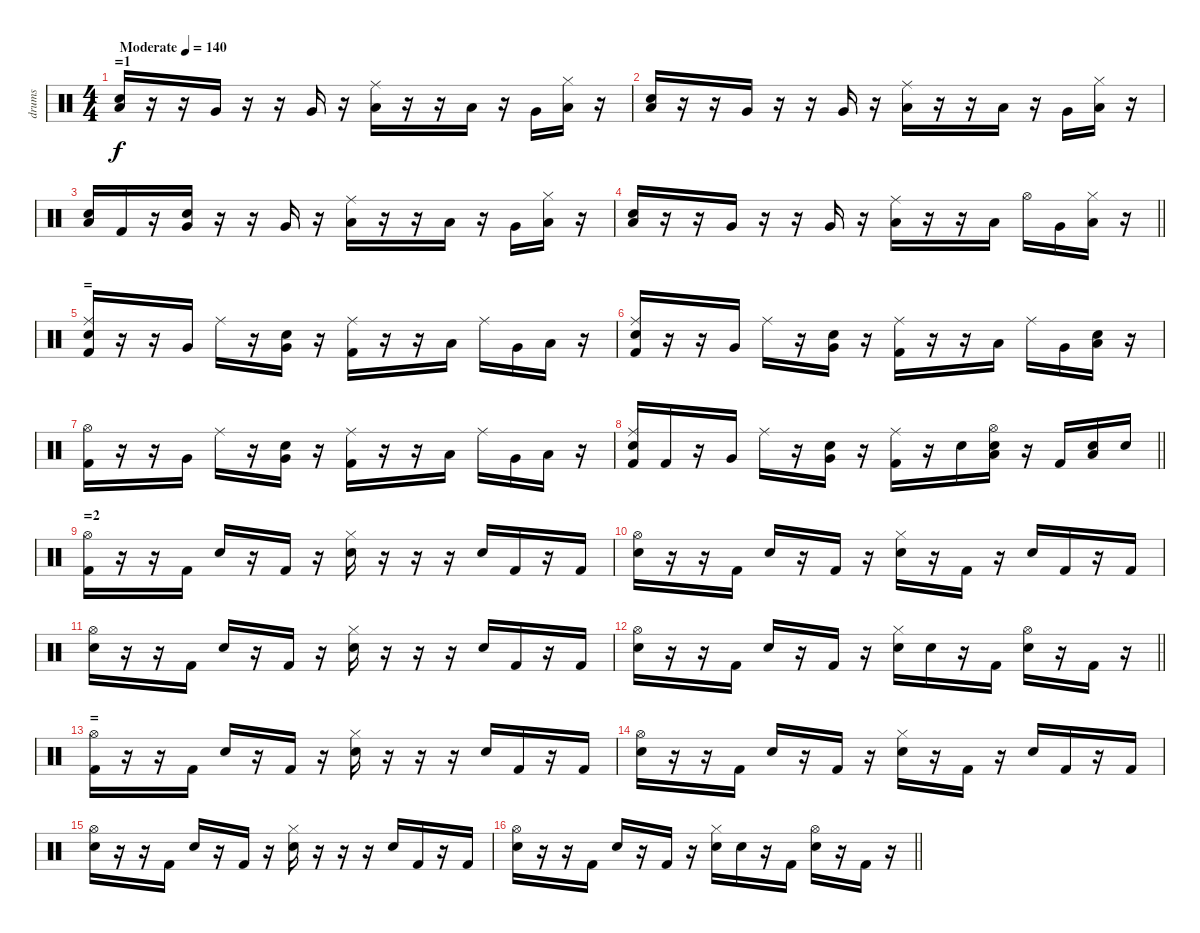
\track ("drums" "drums") {instrument percussion}
\staff {score}
\articulation defaults
\ts (4 4)
\section ("" "=1")
\tempo (140 "Moderate")
\clef neutral
\ks c
("Low Floor Tom (hit)" "Electric Snare (hit)").16{dy f} r.16 r.16 "Very Low Tom (hit)".16 r.16 r.16 "Very Low Tom (hit)".16 r.16 ("Low Floor Tom (hit)" "Ride (middle)").16 r.16 r.16 "Low Tom (hit)".16 r.16 "Very Low Tom (hit)".16 ("Low Floor Tom (hit)" "Hi-Hat (closed)").16 r.16 |
("Low Floor Tom (hit)" "Electric Snare (hit)").16 r.16 r.16 "Very Low Tom (hit)".16 r.16 r.16 "Very Low Tom (hit)".16 r.16 ("Low Floor Tom (hit)" "Ride (middle)").16 r.16 r.16 "Low Tom (hit)".16 r.16 "Very Low Tom (hit)".16 ("Low Floor Tom (hit)" "Hi-Hat (closed)").16 r.16 |
("Low Floor Tom (hit)" "Electric Snare (hit)").16 "Kick (hit) 2".16 r.16 ("Very Low Tom (hit)" "Hand Clap (hit)").16 r.16 r.16 "Very Low Tom (hit)".16 r.16 ("Low Floor Tom (hit)" "Ride (middle)").16 r.16 r.16 "Low Tom (hit)".16 r.16 "Very Low Tom (hit)".16 ("Low Floor Tom (hit)" "Hi-Hat (closed)").16 r.16 |
\barLineRight lightlight
("Low Floor Tom (hit)" "Electric Snare (hit)").16 r.16 r.16 "Very Low Tom (hit)".16 r.16 r.16 "Very Low Tom (hit)".16 r.16 ("Low Floor Tom (hit)" "Ride (middle)").16 r.16 r.16 "Low Tom (hit)".16 "Hi-Hat (open)".16 "Very Low Tom (hit)".16 ("Low Floor Tom (hit)" "Hi-Hat (closed)").16 r.16 |
\section ("" "=")
("Kick (hit) 2" "Electric Snare (hit)" "Ride (middle)").16 r.16 r.16 "Very Low Tom (hit)".16 "Ride (middle)".16 r.16 ("Very Low Tom (hit)" "Electric Snare (hit)").16 r.16 ("Kick (hit) 2" "Ride (middle)").16 r.16 r.16 "Low Tom (hit)".16 "Ride (middle)".16 "Very Low Tom (hit)".16 "Low Floor Tom (hit)".16 r.16 |
("Kick (hit) 2" "Electric Snare (hit)" "Ride (middle)").16 r.16 r.16 "Very Low Tom (hit)".16 "Ride (middle)".16 r.16 ("Very Low Tom (hit)" "Electric Snare (hit)").16 r.16 ("Kick (hit) 2" "Ride (middle)").16 r.16 r.16 "Low Tom (hit)".16 "Ride (middle)".16 "Very Low Tom (hit)".16 ("Low Floor Tom (hit)" "Electric Snare (hit)").16 r.16 |
("Kick (hit) 2" "Hi-Hat (open)").16 r.16 r.16 "Very Low Tom (hit)".16 "Ride (middle)".16 r.16 ("Very Low Tom (hit)" "Electric Snare (hit)").16 r.16 ("Kick (hit) 2" "Ride (middle)").16 r.16 r.16 "Low Tom (hit)".16 "Ride (middle)".16 "Very Low Tom (hit)".16 "Low Floor Tom (hit)".16 r.16 |
\barLineRight lightlight
("Kick (hit) 2" "Electric Snare (hit)" "Ride (middle)").16 "Kick (hit) 2".16 r.16 "Very Low Tom (hit)".16 "Ride (middle)".16 r.16 ("Very Low Tom (hit)" "Electric Snare (hit)").16 r.16 ("Kick (hit) 2" "Ride (middle)").16 r.16 "Electric Snare (hit)".16 ("Low Tom (hit)" "Electric Snare (hit)" "Hi-Hat (open)").16 r.16 "Kick (hit) 2".16 ("Low Floor Tom (hit)" "Electric Snare (hit)").16 "Electric Snare (hit)".16 |
\section ("" "=2")
("Kick (hit) 2" "Hi-Hat (open)").16 r.16 r.16 "Kick (hit) 2".16 "Electric Snare (hit)".16 r.16 "Kick (hit) 2".16 r.16 ("Electric Snare (hit)" "Hi-Hat (closed)").16 r.16 r.16 r.16 "Electric Snare (hit)".16 "Kick (hit) 2".16 r.16 "Kick (hit) 2".16 |
("Hi-Hat (open)" "Electric Snare (hit)").16 r.16 r.16 "Kick (hit) 2".16 "Electric Snare (hit)".16 r.16 "Kick (hit) 2".16 r.16 ("Electric Snare (hit)" "Hi-Hat (closed)").16 r.16 "Kick (hit) 2".16 r.16 "Electric Snare (hit)".16 "Kick (hit) 2".16 r.16 "Kick (hit) 2".16 |
("Hi-Hat (open)" "Electric Snare (hit)").16 r.16 r.16 "Kick (hit) 2".16 "Electric Snare (hit)".16 r.16 "Kick (hit) 2".16 r.16 ("Electric Snare (hit)" "Hi-Hat (closed)").16 r.16 r.16 r.16 "Electric Snare (hit)".16 "Kick (hit) 2".16 r.16 "Kick (hit) 2".16 |
\barLineRight lightlight
("Hi-Hat (open)" "Electric Snare (hit)").16 r.16 r.16 "Kick (hit) 2".16 "Electric Snare (hit)".16 r.16 "Kick (hit) 2".16 r.16 ("Electric Snare (hit)" "Hi-Hat (closed)").16 "Electric Snare (hit)".16 r.16 "Kick (hit) 2".16 ("Electric Snare (hit)" "Hi-Hat (open)").16 r.16 "Kick (hit) 2".16 r.16 |
\section ("" "=")
("Kick (hit) 2" "Hi-Hat (open)").16 r.16 r.16 "Kick (hit) 2".16 "Electric Snare (hit)".16 r.16 "Kick (hit) 2".16 r.16 ("Electric Snare (hit)" "Hi-Hat (closed)").16 r.16 r.16 r.16 "Electric Snare (hit)".16 "Kick (hit) 2".16 r.16 "Kick (hit) 2".16 |
("Hi-Hat (open)" "Electric Snare (hit)").16 r.16 r.16 "Kick (hit) 2".16 "Electric Snare (hit)".16 r.16 "Kick (hit) 2".16 r.16 ("Electric Snare (hit)" "Hi-Hat (closed)").16 r.16 "Kick (hit) 2".16 r.16 "Electric Snare (hit)".16 "Kick (hit) 2".16 r.16 "Kick (hit) 2".16 |
("Hi-Hat (open)" "Electric Snare (hit)").16 r.16 r.16 "Kick (hit) 2".16 "Electric Snare (hit)".16 r.16 "Kick (hit) 2".16 r.16 ("Electric Snare (hit)" "Hi-Hat (closed)").16 r.16 r.16 r.16 "Electric Snare (hit)".16 "Kick (hit) 2".16 r.16 "Kick (hit) 2".16 |
\barLineRight lightlight
("Hi-Hat (open)" "Electric Snare (hit)").16 r.16 r.16 "Kick (hit) 2".16 "Electric Snare (hit)".16 r.16 "Kick (hit) 2".16 r.16 ("Electric Snare (hit)" "Hi-Hat (closed)").16 "Electric Snare (hit)".16 r.16 "Kick (hit) 2".16 ("Electric Snare (hit)" "Hi-Hat (open)").16 r.16 "Kick (hit) 2".16 r.16
